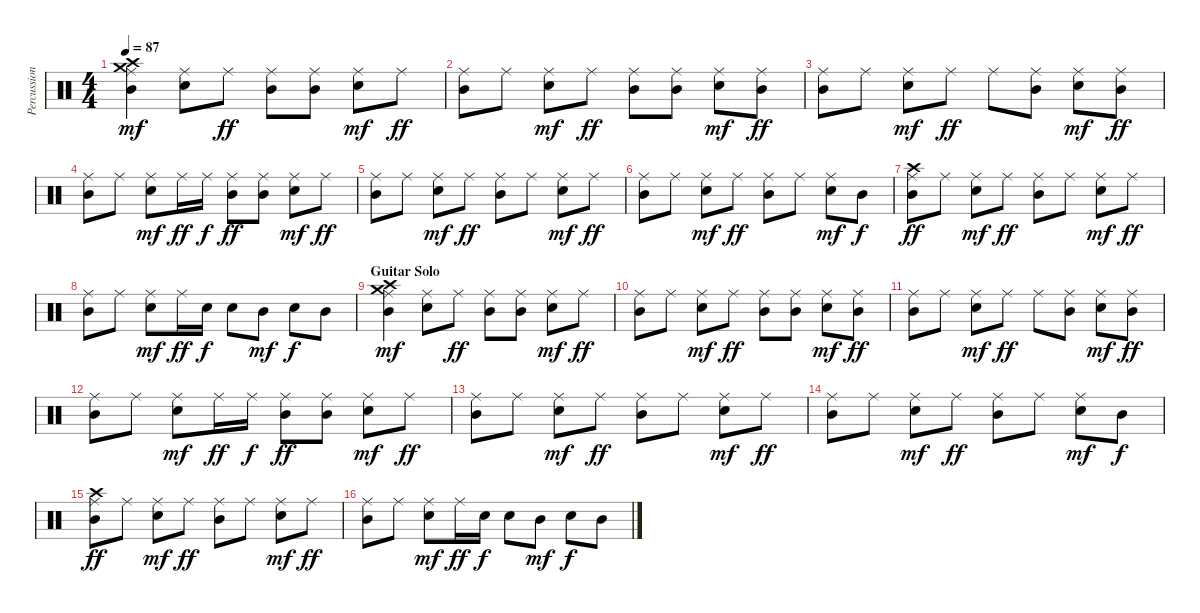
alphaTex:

\track ("Percussion" "Percussion") {instrument percussion}
\staff {score}
\articulation defaults
\ts (4 4)
\tempo 87
\clef neutral
\ks c
("Ride (middle)" "Crash high (hit)" "Crash medium (hit)" "Mid Tom (hit)").4{dy mf} ("Ride (middle)" "Snare (hit) 2").8 "Ride (middle)".8{dy ff} ("Ride (middle)" "Mid Tom (hit)").8 ("Ride (middle)" "Mid Tom (hit)").8 ("Ride (middle)" "Snare (hit) 2").8{dy mf} "Ride (middle)".8{dy ff} |
("Ride (middle)" "Mid Tom (hit)").8 "Ride (middle)".8 ("Ride (middle)" "Snare (hit) 2").8{dy mf} "Ride (middle)".8{dy ff} ("Ride (middle)" "Mid Tom (hit)").8 ("Ride (middle)" "Mid Tom (hit)").8 ("Ride (middle)" "Snare (hit) 2").8{dy mf} ("Ride (middle)" "Mid Tom (hit)").8{dy ff} |
("Ride (middle)" "Mid Tom (hit)").8 "Ride (middle)".8 ("Ride (middle)" "Snare (hit) 2").8{dy mf} "Ride (middle)".8{dy ff} "Ride (middle)".8 ("Ride (middle)" "Mid Tom (hit)").8 ("Ride (middle)" "Snare (hit) 2").8{dy mf} ("Ride (middle)" "Mid Tom (hit)").8{dy ff} |
("Ride (middle)" "Mid Tom (hit)").8 "Ride (middle)".8 ("Ride (middle)" "Snare (hit) 2").8{dy mf} "Ride (middle)".16{dy ff} "Ride (middle)".16{dy f} ("Ride (middle)" "Mid Tom (hit)").8{dy ff} ("Ride (middle)" "Mid Tom (hit)").8 ("Ride (middle)" "Snare (hit) 2").8{dy mf} "Ride (middle)".8{dy ff} |
("Ride (middle)" "Mid Tom (hit)").8 "Ride (middle)".8 ("Ride (middle)" "Snare (hit) 2").8{dy mf} "Ride (middle)".8{dy ff} ("Ride (middle)" "Mid Tom (hit)").8 "Ride (middle)".8 ("Ride (middle)" "Snare (hit) 2").8{dy mf} "Ride (middle)".8{dy ff} |
("Ride (middle)" "Mid Tom (hit)").8 "Ride (middle)".8 ("Ride (middle)" "Snare (hit) 2").8{dy mf} "Ride (middle)".8{dy ff} ("Ride (middle)" "Mid Tom (hit)").8 "Ride (middle)".8 ("Ride (middle)" "Snare (hit) 2").8{dy mf} "Mid Tom (hit)".8{dy f} |
("Ride (middle)" "Crash high (hit)" "Mid Tom (hit)").8{dy ff} "Ride (middle)".8 ("Ride (middle)" "Snare (hit) 2").8{dy mf} "Ride (middle)".8{dy ff} ("Ride (middle)" "Mid Tom (hit)").8 "Ride (middle)".8 ("Ride (middle)" "Snare (hit) 2").8{dy mf} "Ride (middle)".8{dy ff} |
("Ride (middle)" "Mid Tom (hit)").8 "Ride (middle)".8 ("Ride (middle)" "Snare (hit) 2").8{dy mf} "Ride (middle)".16{dy ff} "Snare (hit) 2".16{dy f} "Snare (hit) 2".8 "Mid Tom (hit)".8{dy mf} "Snare (hit) 2".8{dy f} "Mid Tom (hit)".8 |
\section ("" "Guitar Solo")
("Ride (middle)" "Crash high (hit)" "Crash medium (hit)" "Mid Tom (hit)").4{dy mf} ("Ride (middle)" "Snare (hit) 2").8 "Ride (middle)".8{dy ff} ("Ride (middle)" "Mid Tom (hit)").8 ("Ride (middle)" "Mid Tom (hit)").8 ("Ride (middle)" "Snare (hit) 2").8{dy mf} "Ride (middle)".8{dy ff} |
("Ride (middle)" "Mid Tom (hit)").8 "Ride (middle)".8 ("Ride (middle)" "Snare (hit) 2").8{dy mf} "Ride (middle)".8{dy ff} ("Ride (middle)" "Mid Tom (hit)").8 ("Ride (middle)" "Mid Tom (hit)").8 ("Ride (middle)" "Snare (hit) 2").8{dy mf} ("Ride (middle)" "Mid Tom (hit)").8{dy ff} |
("Ride (middle)" "Mid Tom (hit)").8 "Ride (middle)".8 ("Ride (middle)" "Snare (hit) 2").8{dy mf} "Ride (middle)".8{dy ff} "Ride (middle)".8 ("Ride (middle)" "Mid Tom (hit)").8 ("Ride (middle)" "Snare (hit) 2").8{dy mf} ("Ride (middle)" "Mid Tom (hit)").8{dy ff} |
("Ride (middle)" "Mid Tom (hit)").8 "Ride (middle)".8 ("Ride (middle)" "Snare (hit) 2").8{dy mf} "Ride (middle)".16{dy ff} "Ride (middle)".16{dy f} ("Ride (middle)" "Mid Tom (hit)").8{dy ff} ("Ride (middle)" "Mid Tom (hit)").8 ("Ride (middle)" "Snare (hit) 2").8{dy mf} "Ride (middle)".8{dy ff} |
("Ride (middle)" "Mid Tom (hit)").8 "Ride (middle)".8 ("Ride (middle)" "Snare (hit) 2").8{dy mf} "Ride (middle)".8{dy ff} ("Ride (middle)" "Mid Tom (hit)").8 "Ride (middle)".8 ("Ride (middle)" "Snare (hit) 2").8{dy mf} "Ride (middle)".8{dy ff} |
("Ride (middle)" "Mid Tom (hit)").8 "Ride (middle)".8 ("Ride (middle)" "Snare (hit) 2").8{dy mf} "Ride (middle)".8{dy ff} ("Ride (middle)" "Mid Tom (hit)").8 "Ride (middle)".8 ("Ride (middle)" "Snare (hit) 2").8{dy mf} "Mid Tom (hit)".8{dy f} |
("Ride (middle)" "Crash high (hit)" "Mid Tom (hit)").8{dy ff} "Ride (middle)".8 ("Ride (middle)" "Snare (hit) 2").8{dy mf} "Ride (middle)".8{dy ff} ("Ride (middle)" "Mid Tom (hit)").8 "Ride (middle)".8 ("Ride (middle)" "Snare (hit) 2").8{dy mf} "Ride (middle)".8{dy ff} |
("Ride (middle)" "Mid Tom (hit)").8 "Ride (middle)".8 ("Ride (middle)" "Snare (hit) 2").8{dy mf} "Ride (middle)".16{dy ff} "Snare (hit) 2".16{dy f} "Snare (hit) 2".8 "Mid Tom (hit)".8{dy mf} "Snare (hit) 2".8{dy f} "Mid Tom (hit)".8
